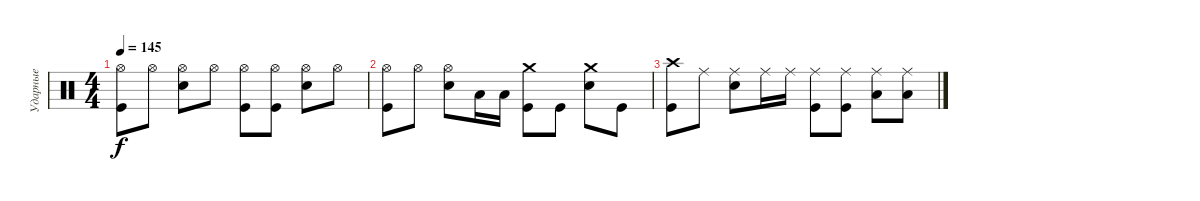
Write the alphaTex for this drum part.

\track ("Ударные" "Ударные") {instrument percussion}
\staff {score}
\articulation defaults
\ts (4 4)
\tempo 145
\clef neutral
\ks c
("Hi-Hat (open)" "Kick (hit)").8{dy f} "Hi-Hat (open)".8 ("Hi-Hat (open)" "Electric Snare (hit)").8 "Hi-Hat (open)".8 ("Hi-Hat (open)" "Kick (hit)").8 ("Hi-Hat (open)" "Kick (hit)").8 ("Hi-Hat (open)" "Electric Snare (hit)").8 "Hi-Hat (open)".8 |
("Hi-Hat (open)" "Kick (hit)").8 "Hi-Hat (open)".8 ("Hi-Hat (open)" "Electric Snare (hit)").8 "Low Tom (hit)".16 "Low Tom (hit)".16 ("Crash medium (hit)" "Kick (hit)").8 "Kick (hit)".8 ("Crash medium (hit)" "Electric Snare (hit)").8 "Kick (hit)".8 |
("Crash high (hit)" "Kick (hit)").8 "Ride (middle)".8 ("Ride (middle)" "Electric Snare (hit)").8 "Ride (middle)".16 "Ride (middle)".16 ("Ride (middle)" "Kick (hit)").8 ("Ride (middle)" "Kick (hit)").8 ("Ride (middle)" "Low Tom (hit)").8 ("Ride (middle)" "Low Tom (hit)").8
